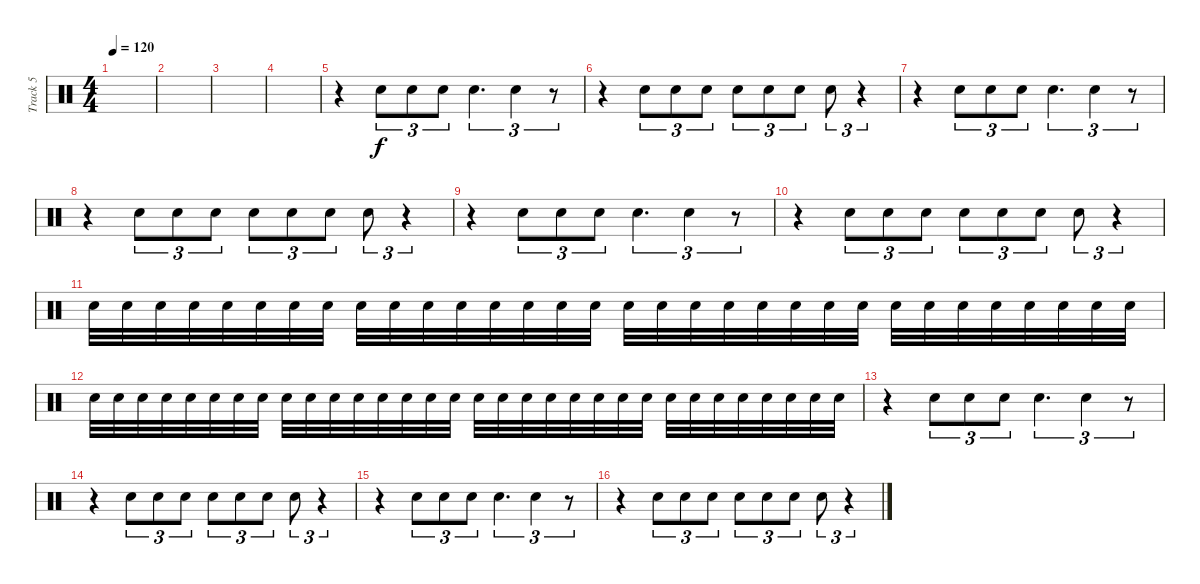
\track ("Track 5" "Track 5") {instrument percussion}
\staff {score}
\articulation defaults
\ts (4 4)
\tempo 120
\clef neutral
\ks c
|
|
|
|
r.4 "Electric Snare (hit)".8{tu (3 2)} "Electric Snare (hit)".8{tu (3 2)} "Electric Snare (hit)".8{tu (3 2)} "Electric Snare (hit)".4{d tu (3 2)} "Electric Snare (hit)".4{tu (3 2)} r.8{tu (3 2)} |
r.4 "Electric Snare (hit)".8{tu (3 2)} "Electric Snare (hit)".8{tu (3 2)} "Electric Snare (hit)".8{tu (3 2)} "Electric Snare (hit)".8{tu (3 2)} "Electric Snare (hit)".8{tu (3 2)} "Electric Snare (hit)".8{tu (3 2)} "Electric Snare (hit)".8{tu (3 2)} r.4{tu (3 2)} |
r.4 "Electric Snare (hit)".8{tu (3 2)} "Electric Snare (hit)".8{tu (3 2)} "Electric Snare (hit)".8{tu (3 2)} "Electric Snare (hit)".4{d tu (3 2)} "Electric Snare (hit)".4{tu (3 2)} r.8{tu (3 2)} |
r.4 "Electric Snare (hit)".8{tu (3 2)} "Electric Snare (hit)".8{tu (3 2)} "Electric Snare (hit)".8{tu (3 2)} "Electric Snare (hit)".8{tu (3 2)} "Electric Snare (hit)".8{tu (3 2)} "Electric Snare (hit)".8{tu (3 2)} "Electric Snare (hit)".8{tu (3 2)} r.4{tu (3 2)} |
r.4 "Electric Snare (hit)".8{tu (3 2)} "Electric Snare (hit)".8{tu (3 2)} "Electric Snare (hit)".8{tu (3 2)} "Electric Snare (hit)".4{d tu (3 2)} "Electric Snare (hit)".4{tu (3 2)} r.8{tu (3 2)} |
r.4 "Electric Snare (hit)".8{tu (3 2)} "Electric Snare (hit)".8{tu (3 2)} "Electric Snare (hit)".8{tu (3 2)} "Electric Snare (hit)".8{tu (3 2)} "Electric Snare (hit)".8{tu (3 2)} "Electric Snare (hit)".8{tu (3 2)} "Electric Snare (hit)".8{tu (3 2)} r.4{tu (3 2)} |
"Electric Snare (hit)".32 "Electric Snare (hit)".32 "Electric Snare (hit)".32 "Electric Snare (hit)".32 "Electric Snare (hit)".32 "Electric Snare (hit)".32 "Electric Snare (hit)".32 "Electric Snare (hit)".32 "Electric Snare (hit)".32 "Electric Snare (hit)".32 "Electric Snare (hit)".32 "Electric Snare (hit)".32 "Electric Snare (hit)".32 "Electric Snare (hit)".32 "Electric Snare (hit)".32 "Electric Snare (hit)".32 "Electric Snare (hit)".32 "Electric Snare (hit)".32 "Electric Snare (hit)".32 "Electric Snare (hit)".32 "Electric Snare (hit)".32 "Electric Snare (hit)".32 "Electric Snare (hit)".32 "Electric Snare (hit)".32 "Electric Snare (hit)".32 "Electric Snare (hit)".32 "Electric Snare (hit)".32 "Electric Snare (hit)".32 "Electric Snare (hit)".32 "Electric Snare (hit)".32 "Electric Snare (hit)".32 "Electric Snare (hit)".32 |
"Electric Snare (hit)".32 "Electric Snare (hit)".32 "Electric Snare (hit)".32 "Electric Snare (hit)".32 "Electric Snare (hit)".32 "Electric Snare (hit)".32 "Electric Snare (hit)".32 "Electric Snare (hit)".32 "Electric Snare (hit)".32 "Electric Snare (hit)".32 "Electric Snare (hit)".32 "Electric Snare (hit)".32 "Electric Snare (hit)".32 "Electric Snare (hit)".32 "Electric Snare (hit)".32 "Electric Snare (hit)".32 "Electric Snare (hit)".32 "Electric Snare (hit)".32 "Electric Snare (hit)".32 "Electric Snare (hit)".32 "Electric Snare (hit)".32 "Electric Snare (hit)".32 "Electric Snare (hit)".32 "Electric Snare (hit)".32 "Electric Snare (hit)".32 "Electric Snare (hit)".32 "Electric Snare (hit)".32 "Electric Snare (hit)".32 "Electric Snare (hit)".32 "Electric Snare (hit)".32 "Electric Snare (hit)".32 "Electric Snare (hit)".32 |
r.4 "Electric Snare (hit)".8{tu (3 2)} "Electric Snare (hit)".8{tu (3 2)} "Electric Snare (hit)".8{tu (3 2)} "Electric Snare (hit)".4{d tu (3 2)} "Electric Snare (hit)".4{tu (3 2)} r.8{tu (3 2)} |
r.4 "Electric Snare (hit)".8{tu (3 2)} "Electric Snare (hit)".8{tu (3 2)} "Electric Snare (hit)".8{tu (3 2)} "Electric Snare (hit)".8{tu (3 2)} "Electric Snare (hit)".8{tu (3 2)} "Electric Snare (hit)".8{tu (3 2)} "Electric Snare (hit)".8{tu (3 2)} r.4{tu (3 2)} |
r.4 "Electric Snare (hit)".8{tu (3 2)} "Electric Snare (hit)".8{tu (3 2)} "Electric Snare (hit)".8{tu (3 2)} "Electric Snare (hit)".4{d tu (3 2)} "Electric Snare (hit)".4{tu (3 2)} r.8{tu (3 2)} |
r.4 "Electric Snare (hit)".8{tu (3 2)} "Electric Snare (hit)".8{tu (3 2)} "Electric Snare (hit)".8{tu (3 2)} "Electric Snare (hit)".8{tu (3 2)} "Electric Snare (hit)".8{tu (3 2)} "Electric Snare (hit)".8{tu (3 2)} "Electric Snare (hit)".8{tu (3 2)} r.4{tu (3 2)}
